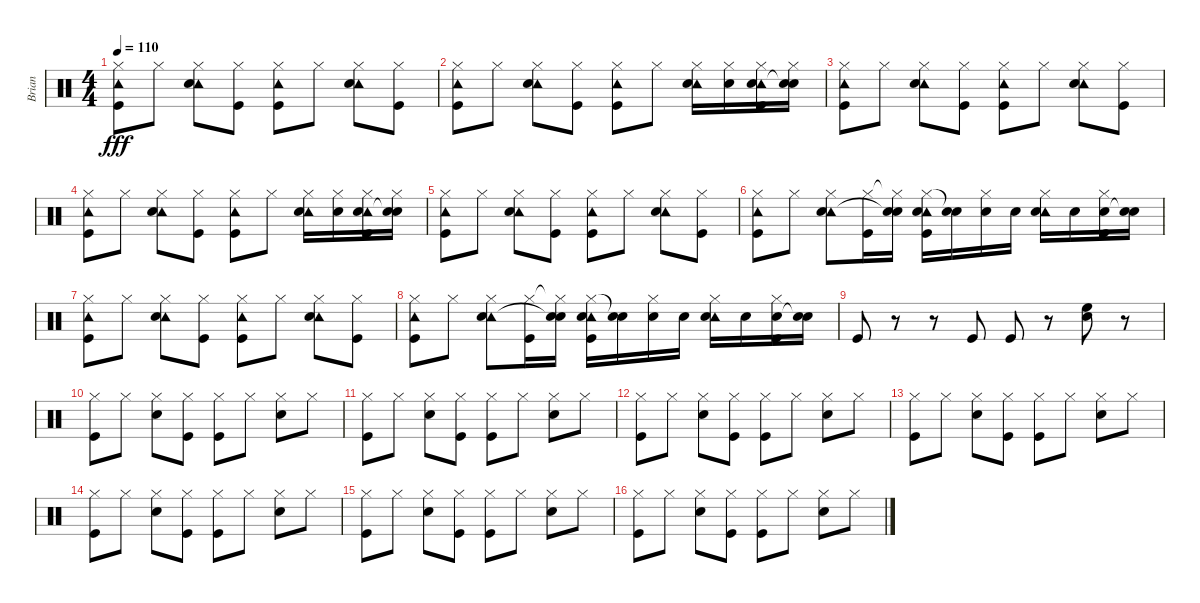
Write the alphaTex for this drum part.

\track ("Brian" "Brian") {instrument percussion}
\staff {score}
\articulation defaults
\ts (4 4)
\tempo 110
\clef neutral
\ks c
("Tambourine (hit)" "Hi-Hat (closed)" "Kick (hit)").8{dy fff} "Hi-Hat (closed)".8 ("Tambourine (hit)" "Hi-Hat (closed)" "Electric Snare (hit)").8 ("Hi-Hat (closed)" "Kick (hit)").8 ("Tambourine (hit)" "Hi-Hat (closed)" "Kick (hit)").8 "Hi-Hat (closed)".8 ("Tambourine (hit)" "Hi-Hat (closed)" "Electric Snare (hit)").8 ("Hi-Hat (closed)" "Kick (hit)").8 |
("Tambourine (hit)" "Hi-Hat (closed)" "Kick (hit)").8 "Hi-Hat (closed)".8 ("Tambourine (hit)" "Hi-Hat (closed)" "Electric Snare (hit)").8 ("Hi-Hat (closed)" "Kick (hit)").8 ("Tambourine (hit)" "Hi-Hat (closed)" "Kick (hit)").8 "Hi-Hat (closed)".8 ("Tambourine (hit)" "Hi-Hat (closed)" "Electric Snare (hit)").16 ("Hi-Hat (closed)" "Electric Snare (hit)").16 ("Tambourine (hit)" "Hi-Hat (closed)" "Electric Snare (hit)" "Kick (hit)").16 ("Hi-Hat (closed)" "Electric Snare (hit)" "Snare (hit)"{t}).16 |
("Tambourine (hit)" "Hi-Hat (closed)" "Kick (hit)").8 "Hi-Hat (closed)".8 ("Tambourine (hit)" "Hi-Hat (closed)" "Electric Snare (hit)").8 ("Hi-Hat (closed)" "Kick (hit)").8 ("Tambourine (hit)" "Hi-Hat (closed)" "Kick (hit)").8 "Hi-Hat (closed)".8 ("Tambourine (hit)" "Hi-Hat (closed)" "Electric Snare (hit)").8 ("Hi-Hat (closed)" "Kick (hit)").8 |
("Tambourine (hit)" "Hi-Hat (closed)" "Kick (hit)").8 "Hi-Hat (closed)".8 ("Tambourine (hit)" "Hi-Hat (closed)" "Electric Snare (hit)").8 ("Hi-Hat (closed)" "Kick (hit)").8 ("Tambourine (hit)" "Hi-Hat (closed)" "Kick (hit)").8 "Hi-Hat (closed)".8 ("Tambourine (hit)" "Hi-Hat (closed)" "Electric Snare (hit)").16 ("Hi-Hat (closed)" "Electric Snare (hit)").16 ("Tambourine (hit)" "Hi-Hat (closed)" "Electric Snare (hit)" "Kick (hit)").16 ("Hi-Hat (closed)" "Electric Snare (hit)" "Snare (hit)"{t}).16 |
("Tambourine (hit)" "Hi-Hat (closed)" "Kick (hit)").8 "Hi-Hat (closed)".8 ("Tambourine (hit)" "Hi-Hat (closed)" "Electric Snare (hit)").8 ("Hi-Hat (closed)" "Kick (hit)").8 ("Tambourine (hit)" "Hi-Hat (closed)" "Kick (hit)").8 "Hi-Hat (closed)".8 ("Tambourine (hit)" "Hi-Hat (closed)" "Electric Snare (hit)").8 ("Hi-Hat (closed)" "Kick (hit)").8 |
("Tambourine (hit)" "Hi-Hat (closed)" "Kick (hit)").8 "Hi-Hat (closed)".8 ("Tambourine (hit)" "Hi-Hat (closed)" "Electric Snare (hit)").8 ("Hi-Hat (closed)" "Kick (hit)").16 ("Hi-Hat (closed)"{t} "Electric Snare (hit)" "Snare (hit)"{t}).16 ("Tambourine (hit)" "Hi-Hat (closed)" "Electric Snare (hit)" "Kick (hit)").16 ("Electric Snare (hit)" "Snare (hit)"{t}).16 ("Hi-Hat (closed)" "Electric Snare (hit)").16 "Electric Snare (hit)".16 ("Tambourine (hit)" "Hi-Hat (closed)" "Electric Snare (hit)").16 "Electric Snare (hit)".16 ("Hi-Hat (closed)" "Electric Snare (hit)" "Kick (hit)").16 ("Electric Snare (hit)" "Snare (hit)"{t}).16 |
("Tambourine (hit)" "Hi-Hat (closed)" "Kick (hit)").8 "Hi-Hat (closed)".8 ("Tambourine (hit)" "Hi-Hat (closed)" "Electric Snare (hit)").8 ("Hi-Hat (closed)" "Kick (hit)").8 ("Tambourine (hit)" "Hi-Hat (closed)" "Kick (hit)").8 "Hi-Hat (closed)".8 ("Tambourine (hit)" "Hi-Hat (closed)" "Electric Snare (hit)").8 ("Hi-Hat (closed)" "Kick (hit)").8 |
("Tambourine (hit)" "Hi-Hat (closed)" "Kick (hit)").8 "Hi-Hat (closed)".8 ("Tambourine (hit)" "Hi-Hat (closed)" "Electric Snare (hit)").8 ("Hi-Hat (closed)" "Kick (hit)").16 ("Hi-Hat (closed)"{t} "Electric Snare (hit)" "Snare (hit)"{t}).16 ("Tambourine (hit)" "Hi-Hat (closed)" "Electric Snare (hit)" "Kick (hit)").16 ("Electric Snare (hit)" "Snare (hit)"{t}).16 ("Hi-Hat (closed)" "Electric Snare (hit)").16 "Electric Snare (hit)".16 ("Tambourine (hit)" "Hi-Hat (closed)" "Electric Snare (hit)").16 "Electric Snare (hit)".16 ("Hi-Hat (closed)" "Electric Snare (hit)" "Kick (hit)").16 ("Electric Snare (hit)" "Snare (hit)"{t}).16 |
"Kick (hit)".8 r.8 r.8 "Kick (hit)".8 "Kick (hit)".8 r.8 ("High Floor Tom (hit)" "Electric Snare (hit)").8{volume 16} r.8 |
("Hi-Hat (closed)" "Kick (hit)").8{volume 14} "Hi-Hat (closed)".8 ("Hi-Hat (closed)" "Electric Snare (hit)").8 ("Hi-Hat (closed)" "Kick (hit)").8 ("Hi-Hat (closed)" "Kick (hit)").8 "Hi-Hat (closed)".8 ("Hi-Hat (closed)" "Electric Snare (hit)").8 "Hi-Hat (closed)".8 |
("Hi-Hat (closed)" "Kick (hit)").8 "Hi-Hat (closed)".8 ("Hi-Hat (closed)" "Electric Snare (hit)").8 ("Hi-Hat (closed)" "Kick (hit)").8 ("Hi-Hat (closed)" "Kick (hit)").8 "Hi-Hat (closed)".8 ("Hi-Hat (closed)" "Electric Snare (hit)").8 "Hi-Hat (closed)".8 |
("Hi-Hat (closed)" "Kick (hit)").8 "Hi-Hat (closed)".8 ("Hi-Hat (closed)" "Electric Snare (hit)").8 ("Hi-Hat (closed)" "Kick (hit)").8 ("Hi-Hat (closed)" "Kick (hit)").8 "Hi-Hat (closed)".8 ("Hi-Hat (closed)" "Electric Snare (hit)").8 "Hi-Hat (closed)".8 |
("Hi-Hat (closed)" "Kick (hit)").8 "Hi-Hat (closed)".8 ("Hi-Hat (closed)" "Electric Snare (hit)").8 ("Hi-Hat (closed)" "Kick (hit)").8 ("Hi-Hat (closed)" "Kick (hit)").8 "Hi-Hat (closed)".8 ("Hi-Hat (closed)" "Electric Snare (hit)").8 "Hi-Hat (closed)".8 |
("Hi-Hat (closed)" "Kick (hit)").8 "Hi-Hat (closed)".8 ("Hi-Hat (closed)" "Electric Snare (hit)").8 ("Hi-Hat (closed)" "Kick (hit)").8 ("Hi-Hat (closed)" "Kick (hit)").8 "Hi-Hat (closed)".8 ("Hi-Hat (closed)" "Electric Snare (hit)").8 "Hi-Hat (closed)".8 |
("Hi-Hat (closed)" "Kick (hit)").8 "Hi-Hat (closed)".8 ("Hi-Hat (closed)" "Electric Snare (hit)").8 ("Hi-Hat (closed)" "Kick (hit)").8 ("Hi-Hat (closed)" "Kick (hit)").8 "Hi-Hat (closed)".8 ("Hi-Hat (closed)" "Electric Snare (hit)").8 "Hi-Hat (closed)".8 |
("Hi-Hat (closed)" "Kick (hit)").8 "Hi-Hat (closed)".8 ("Hi-Hat (closed)" "Electric Snare (hit)").8 ("Hi-Hat (closed)" "Kick (hit)").8 ("Hi-Hat (closed)" "Kick (hit)").8 "Hi-Hat (closed)".8 ("Hi-Hat (closed)" "Electric Snare (hit)").8 "Hi-Hat (closed)".8
